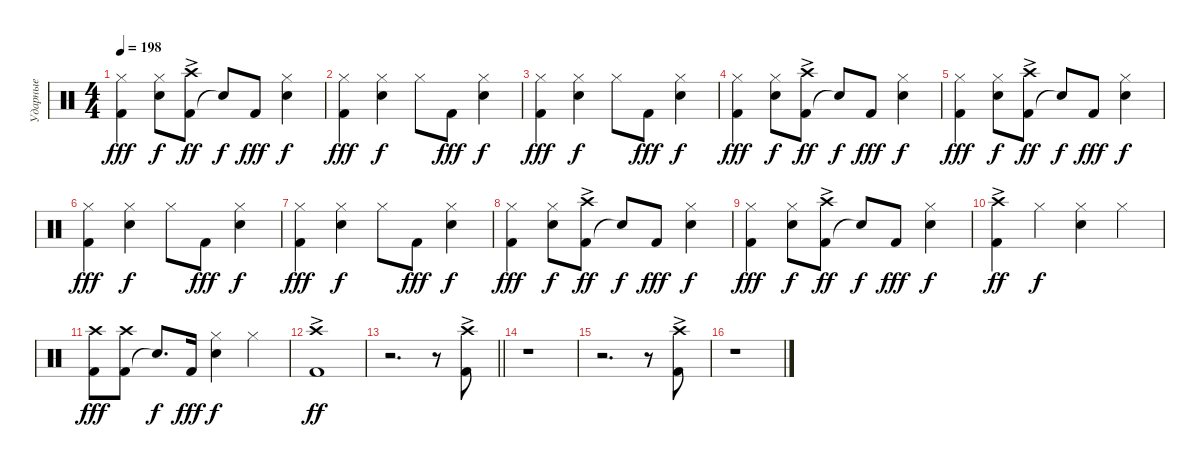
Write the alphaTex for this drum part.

\track ("Ударные" "Ударные") {instrument percussion}
\staff {score}
\articulation defaults
\ts (4 4)
\tempo 198
\clef neutral
\ks c
("Kick (hit) 2" "Hi-Hat (closed)").4{dy fff} ("Snare (hit) 2" "Hi-Hat (closed)").8{dy f} ("Kick (hit) 2" "Crash high (hit)"{ac}).8{dy ff} "Snare (hit)"{t}.8{dy f} "Kick (hit) 2".8{dy fff} ("Snare (hit) 2" "Hi-Hat (closed)").4{dy f} |
("Kick (hit) 2" "Hi-Hat (closed)").4{dy fff} ("Snare (hit) 2" "Hi-Hat (closed)").4{dy f} "Hi-Hat (closed)".8 "Kick (hit) 2".8{dy fff} ("Snare (hit) 2" "Hi-Hat (closed)").4{dy f} |
("Kick (hit) 2" "Hi-Hat (closed)").4{dy fff} ("Snare (hit) 2" "Hi-Hat (closed)").4{dy f} "Hi-Hat (closed)".8 "Kick (hit) 2".8{dy fff} ("Snare (hit) 2" "Hi-Hat (closed)").4{dy f} |
("Kick (hit) 2" "Hi-Hat (closed)").4{dy fff} ("Snare (hit) 2" "Hi-Hat (closed)").8{dy f} ("Kick (hit) 2" "Crash high (hit)"{ac}).8{dy ff} "Snare (hit)"{t}.8{dy f} "Kick (hit) 2".8{dy fff} ("Snare (hit) 2" "Hi-Hat (closed)").4{dy f} |
("Kick (hit) 2" "Hi-Hat (closed)").4{dy fff} ("Snare (hit) 2" "Hi-Hat (closed)").8{dy f} ("Kick (hit) 2" "Crash high (hit)"{ac}).8{dy ff} "Snare (hit)"{t}.8{dy f} "Kick (hit) 2".8{dy fff} ("Snare (hit) 2" "Hi-Hat (closed)").4{dy f} |
("Kick (hit) 2" "Hi-Hat (closed)").4{dy fff} ("Snare (hit) 2" "Hi-Hat (closed)").4{dy f} "Hi-Hat (closed)".8 "Kick (hit) 2".8{dy fff} ("Snare (hit) 2" "Hi-Hat (closed)").4{dy f} |
("Kick (hit) 2" "Hi-Hat (closed)").4{dy fff} ("Snare (hit) 2" "Hi-Hat (closed)").4{dy f} "Hi-Hat (closed)".8 "Kick (hit) 2".8{dy fff} ("Snare (hit) 2" "Hi-Hat (closed)").4{dy f} |
("Kick (hit) 2" "Hi-Hat (closed)").4{dy fff} ("Snare (hit) 2" "Hi-Hat (closed)").8{dy f} ("Kick (hit) 2" "Crash high (hit)"{ac}).8{dy ff} "Snare (hit)"{t}.8{dy f} "Kick (hit) 2".8{dy fff} ("Snare (hit) 2" "Hi-Hat (closed)").4{dy f} |
("Kick (hit) 2" "Hi-Hat (closed)").4{dy fff} ("Snare (hit) 2" "Hi-Hat (closed)").8{dy f} ("Kick (hit) 2" "Crash high (hit)"{ac}).8{dy ff} "Snare (hit)"{t}.8{dy f} "Kick (hit) 2".8{dy fff} ("Snare (hit) 2" "Hi-Hat (closed)").4{dy f} |
("Kick (hit) 2" "Crash high (hit)"{ac}).4{dy ff} "Hi-Hat (closed)".4{dy f} ("Snare (hit) 2" "Hi-Hat (closed)").4 "Hi-Hat (closed)".4 |
("Kick (hit) 2" "Crash high (hit)").8{dy fff} ("Kick (hit) 2" "Crash high (hit)").8 "Snare (hit)"{t}.8{d dy f} "Kick (hit) 2".16{dy fff} ("Snare (hit) 2" "Hi-Hat (closed)").4{dy f} "Hi-Hat (closed)".4 |
("Kick (hit) 2" "Crash high (hit)"{ac}).1{dy ff} |
\barLineRight lightlight
r.2{d} r.8 ("Kick (hit) 2" "Crash high (hit)"{ac}).8 |
r.1 |
r.2{d} r.8 ("Kick (hit) 2" "Crash high (hit)"{ac}).8 |
r.1
